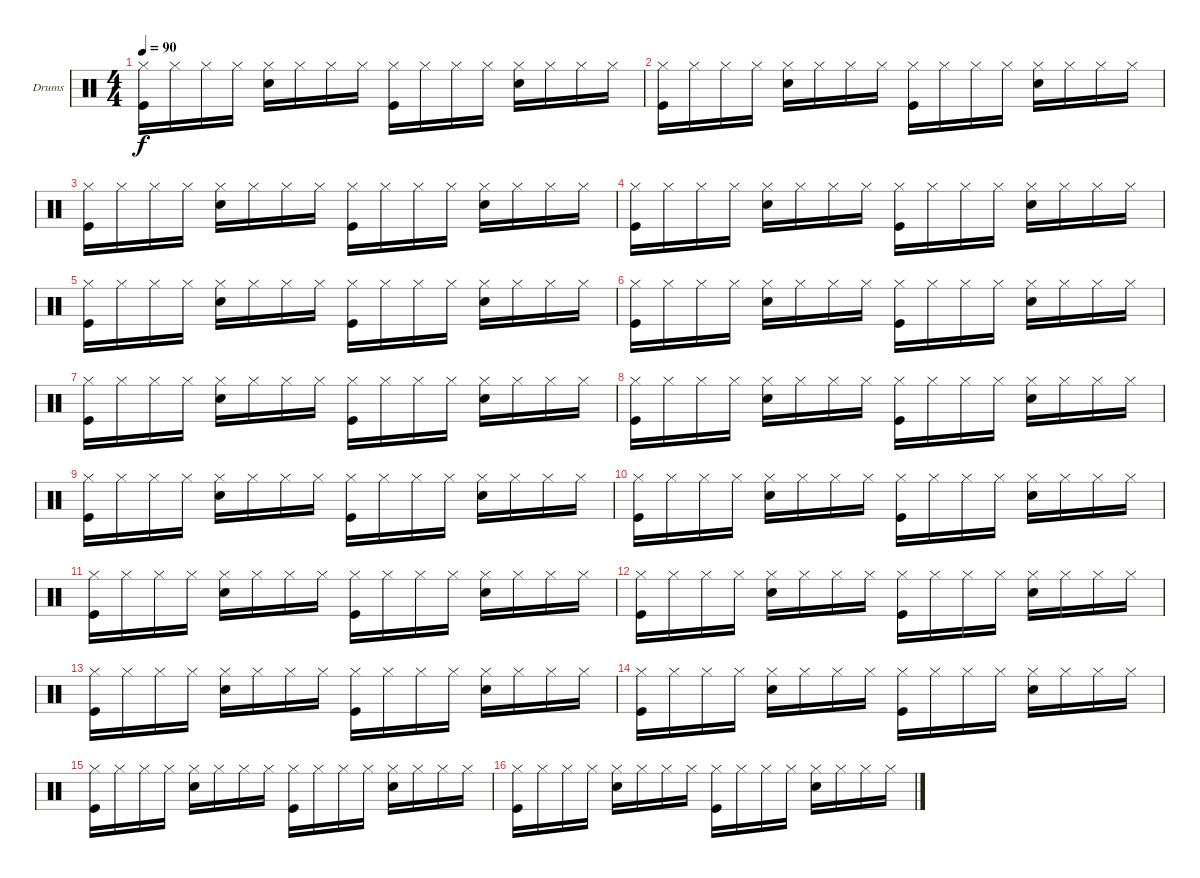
\defaultSystemsLayout 4
\bracketExtendMode groupsimilarinstruments
\firstSystemTrackNameOrientation horizontal
\otherSystemsTrackNameOrientation horizontal
\track ("Drumkit" "Drums") {instrument percussion}
\staff {score}
\articulation defaults
\ts (4 4)
\tempo 90
\clef neutral
\ks c
("Hi-Hat (closed)" "Kick (hit)").16{dy f} "Hi-Hat (closed)".16 "Hi-Hat (closed)".16 "Hi-Hat (closed)".16 ("Hi-Hat (closed)" "Snare (hit) 2").16 "Hi-Hat (closed)".16 "Hi-Hat (closed)".16 "Hi-Hat (closed)".16 ("Hi-Hat (closed)" "Kick (hit)").16 "Hi-Hat (closed)".16 "Hi-Hat (closed)".16 "Hi-Hat (closed)".16 ("Hi-Hat (closed)" "Snare (hit) 2").16 "Hi-Hat (closed)".16 "Hi-Hat (closed)".16 "Hi-Hat (closed)".16 |
("Hi-Hat (closed)" "Kick (hit)").16 "Hi-Hat (closed)".16 "Hi-Hat (closed)".16 "Hi-Hat (closed)".16 ("Hi-Hat (closed)" "Snare (hit) 2").16 "Hi-Hat (closed)".16 "Hi-Hat (closed)".16 "Hi-Hat (closed)".16 ("Hi-Hat (closed)" "Kick (hit)").16 "Hi-Hat (closed)".16 "Hi-Hat (closed)".16 "Hi-Hat (closed)".16 ("Hi-Hat (closed)" "Snare (hit) 2").16 "Hi-Hat (closed)".16 "Hi-Hat (closed)".16 "Hi-Hat (closed)".16 |
("Hi-Hat (closed)" "Kick (hit)").16 "Hi-Hat (closed)".16 "Hi-Hat (closed)".16 "Hi-Hat (closed)".16 ("Hi-Hat (closed)" "Snare (hit) 2").16 "Hi-Hat (closed)".16 "Hi-Hat (closed)".16 "Hi-Hat (closed)".16 ("Hi-Hat (closed)" "Kick (hit)").16 "Hi-Hat (closed)".16 "Hi-Hat (closed)".16 "Hi-Hat (closed)".16 ("Hi-Hat (closed)" "Snare (hit) 2").16 "Hi-Hat (closed)".16 "Hi-Hat (closed)".16 "Hi-Hat (closed)".16 |
("Hi-Hat (closed)" "Kick (hit)").16 "Hi-Hat (closed)".16 "Hi-Hat (closed)".16 "Hi-Hat (closed)".16 ("Hi-Hat (closed)" "Snare (hit) 2").16 "Hi-Hat (closed)".16 "Hi-Hat (closed)".16 "Hi-Hat (closed)".16 ("Hi-Hat (closed)" "Kick (hit)").16 "Hi-Hat (closed)".16 "Hi-Hat (closed)".16 "Hi-Hat (closed)".16 ("Hi-Hat (closed)" "Snare (hit) 2").16 "Hi-Hat (closed)".16 "Hi-Hat (closed)".16 "Hi-Hat (closed)".16 |
("Hi-Hat (closed)" "Kick (hit)").16 "Hi-Hat (closed)".16 "Hi-Hat (closed)".16 "Hi-Hat (closed)".16 ("Hi-Hat (closed)" "Snare (hit) 2").16 "Hi-Hat (closed)".16 "Hi-Hat (closed)".16 "Hi-Hat (closed)".16 ("Hi-Hat (closed)" "Kick (hit)").16 "Hi-Hat (closed)".16 "Hi-Hat (closed)".16 "Hi-Hat (closed)".16 ("Hi-Hat (closed)" "Snare (hit) 2").16 "Hi-Hat (closed)".16 "Hi-Hat (closed)".16 "Hi-Hat (closed)".16 |
("Hi-Hat (closed)" "Kick (hit)").16 "Hi-Hat (closed)".16 "Hi-Hat (closed)".16 "Hi-Hat (closed)".16 ("Hi-Hat (closed)" "Snare (hit) 2").16 "Hi-Hat (closed)".16 "Hi-Hat (closed)".16 "Hi-Hat (closed)".16 ("Hi-Hat (closed)" "Kick (hit)").16 "Hi-Hat (closed)".16 "Hi-Hat (closed)".16 "Hi-Hat (closed)".16 ("Hi-Hat (closed)" "Snare (hit) 2").16 "Hi-Hat (closed)".16 "Hi-Hat (closed)".16 "Hi-Hat (closed)".16 |
("Hi-Hat (closed)" "Kick (hit)").16 "Hi-Hat (closed)".16 "Hi-Hat (closed)".16 "Hi-Hat (closed)".16 ("Hi-Hat (closed)" "Snare (hit) 2").16 "Hi-Hat (closed)".16 "Hi-Hat (closed)".16 "Hi-Hat (closed)".16 ("Hi-Hat (closed)" "Kick (hit)").16 "Hi-Hat (closed)".16 "Hi-Hat (closed)".16 "Hi-Hat (closed)".16 ("Hi-Hat (closed)" "Snare (hit) 2").16 "Hi-Hat (closed)".16 "Hi-Hat (closed)".16 "Hi-Hat (closed)".16 |
("Hi-Hat (closed)" "Kick (hit)").16 "Hi-Hat (closed)".16 "Hi-Hat (closed)".16 "Hi-Hat (closed)".16 ("Hi-Hat (closed)" "Snare (hit) 2").16 "Hi-Hat (closed)".16 "Hi-Hat (closed)".16 "Hi-Hat (closed)".16 ("Hi-Hat (closed)" "Kick (hit)").16 "Hi-Hat (closed)".16 "Hi-Hat (closed)".16 "Hi-Hat (closed)".16 ("Hi-Hat (closed)" "Snare (hit) 2").16 "Hi-Hat (closed)".16 "Hi-Hat (closed)".16 "Hi-Hat (closed)".16 |
("Hi-Hat (closed)" "Kick (hit)").16 "Hi-Hat (closed)".16 "Hi-Hat (closed)".16 "Hi-Hat (closed)".16 ("Hi-Hat (closed)" "Snare (hit) 2").16 "Hi-Hat (closed)".16 "Hi-Hat (closed)".16 "Hi-Hat (closed)".16 ("Hi-Hat (closed)" "Kick (hit)").16 "Hi-Hat (closed)".16 "Hi-Hat (closed)".16 "Hi-Hat (closed)".16 ("Hi-Hat (closed)" "Snare (hit) 2").16 "Hi-Hat (closed)".16 "Hi-Hat (closed)".16 "Hi-Hat (closed)".16 |
("Hi-Hat (closed)" "Kick (hit)").16 "Hi-Hat (closed)".16 "Hi-Hat (closed)".16 "Hi-Hat (closed)".16 ("Snare (hit) 2" "Hi-Hat (closed)").16 "Hi-Hat (closed)".16 "Hi-Hat (closed)".16 "Hi-Hat (closed)".16 ("Hi-Hat (closed)" "Kick (hit)").16 "Hi-Hat (closed)".16 "Hi-Hat (closed)".16 "Hi-Hat (closed)".16 ("Hi-Hat (closed)" "Snare (hit) 2").16 "Hi-Hat (closed)".16 "Hi-Hat (closed)".16 "Hi-Hat (closed)".16 |
("Kick (hit)" "Hi-Hat (closed)").16 "Hi-Hat (closed)".16 "Hi-Hat (closed)".16 "Hi-Hat (closed)".16 ("Hi-Hat (closed)" "Snare (hit) 2").16 "Hi-Hat (closed)".16 "Hi-Hat (closed)".16 "Hi-Hat (closed)".16 ("Hi-Hat (closed)" "Kick (hit)").16 "Hi-Hat (closed)".16 "Hi-Hat (closed)".16 "Hi-Hat (closed)".16 ("Snare (hit) 2" "Hi-Hat (closed)").16 "Hi-Hat (closed)".16 "Hi-Hat (closed)".16 "Hi-Hat (closed)".16 |
("Hi-Hat (closed)" "Kick (hit)").16 "Hi-Hat (closed)".16 "Hi-Hat (closed)".16 "Hi-Hat (closed)".16 ("Hi-Hat (closed)" "Snare (hit) 2").16 "Hi-Hat (closed)".16 "Hi-Hat (closed)".16 "Hi-Hat (closed)".16 ("Kick (hit)" "Hi-Hat (closed)").16 "Hi-Hat (closed)".16 "Hi-Hat (closed)".16 "Hi-Hat (closed)".16 ("Hi-Hat (closed)" "Snare (hit) 2").16 "Hi-Hat (closed)".16 "Hi-Hat (closed)".16 "Hi-Hat (closed)".16 |
("Hi-Hat (closed)" "Kick (hit)").16 "Hi-Hat (closed)".16 "Hi-Hat (closed)".16 "Hi-Hat (closed)".16 ("Snare (hit) 2" "Hi-Hat (closed)").16 "Hi-Hat (closed)".16 "Hi-Hat (closed)".16 "Hi-Hat (closed)".16 ("Hi-Hat (closed)" "Kick (hit)").16 "Hi-Hat (closed)".16 "Hi-Hat (closed)".16 "Hi-Hat (closed)".16 ("Hi-Hat (closed)" "Snare (hit) 2").16 "Hi-Hat (closed)".16 "Hi-Hat (closed)".16 "Hi-Hat (closed)".16 |
("Kick (hit)" "Hi-Hat (closed)").16 "Hi-Hat (closed)".16 "Hi-Hat (closed)".16 "Hi-Hat (closed)".16 ("Hi-Hat (closed)" "Snare (hit) 2").16 "Hi-Hat (closed)".16 "Hi-Hat (closed)".16 "Hi-Hat (closed)".16 ("Hi-Hat (closed)" "Kick (hit)").16 "Hi-Hat (closed)".16 "Hi-Hat (closed)".16 "Hi-Hat (closed)".16 ("Snare (hit) 2" "Hi-Hat (closed)").16 "Hi-Hat (closed)".16 "Hi-Hat (closed)".16 "Hi-Hat (closed)".16 |
("Hi-Hat (closed)" "Kick (hit)").16 "Hi-Hat (closed)".16 "Hi-Hat (closed)".16 "Hi-Hat (closed)".16 ("Hi-Hat (closed)" "Snare (hit) 2").16 "Hi-Hat (closed)".16 "Hi-Hat (closed)".16 "Hi-Hat (closed)".16 ("Kick (hit)" "Hi-Hat (closed)").16 "Hi-Hat (closed)".16 "Hi-Hat (closed)".16 "Hi-Hat (closed)".16 ("Hi-Hat (closed)" "Snare (hit) 2").16 "Hi-Hat (closed)".16 "Hi-Hat (closed)".16 "Hi-Hat (closed)".16 |
("Hi-Hat (closed)" "Kick (hit)").16 "Hi-Hat (closed)".16 "Hi-Hat (closed)".16 "Hi-Hat (closed)".16 ("Snare (hit) 2" "Hi-Hat (closed)").16 "Hi-Hat (closed)".16 "Hi-Hat (closed)".16 "Hi-Hat (closed)".16 ("Hi-Hat (closed)" "Kick (hit)").16 "Hi-Hat (closed)".16 "Hi-Hat (closed)".16 "Hi-Hat (closed)".16 ("Hi-Hat (closed)" "Snare (hit) 2").16 "Hi-Hat (closed)".16 "Hi-Hat (closed)".16 "Hi-Hat (closed)".16
